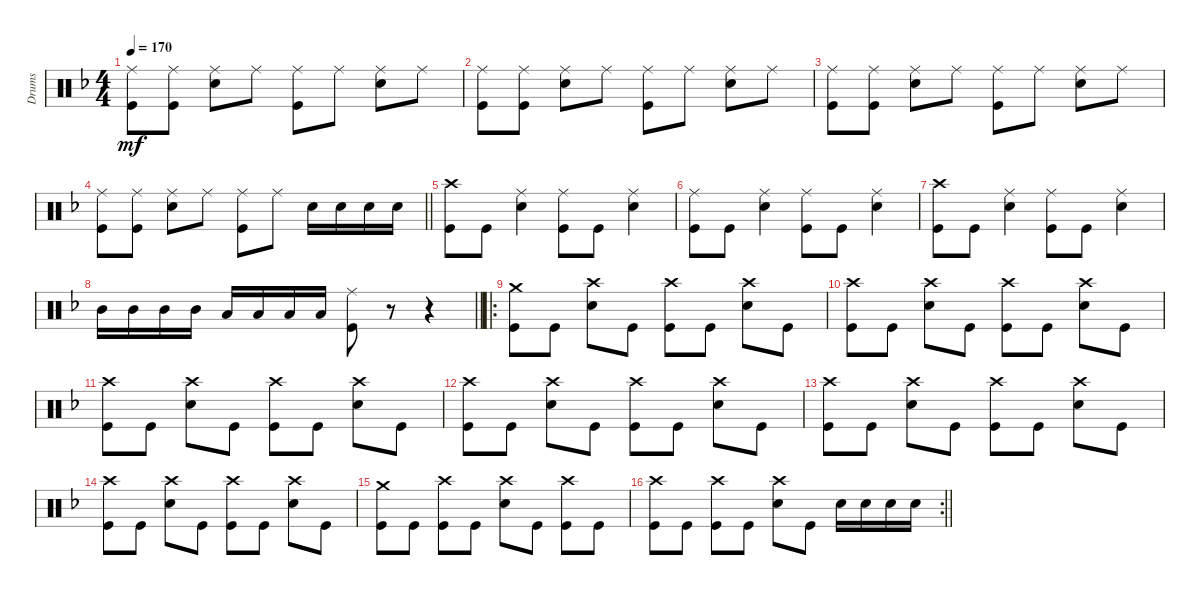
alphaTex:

\track ("Drums" "Drums") {instrument percussion}
\staff {score}
\articulation defaults
\ts (4 4)
\tempo 170
\clef neutral
\ks f
("Kick (hit)" "Ride (middle)").8{dy mf} ("Kick (hit)" "Ride (middle)").8 ("Snare (hit) 2" "Ride (middle)").8 "Ride (middle)".8 ("Kick (hit)" "Ride (middle)").8 "Ride (middle)".8 ("Snare (hit) 2" "Ride (middle)").8 "Ride (middle)".8 |
("Kick (hit)" "Ride (middle)").8 ("Kick (hit)" "Ride (middle)").8 ("Snare (hit) 2" "Ride (middle)").8 "Ride (middle)".8 ("Kick (hit)" "Ride (middle)").8 "Ride (middle)".8 ("Snare (hit) 2" "Ride (middle)").8 "Ride (middle)".8 |
("Kick (hit)" "Ride (middle)").8 ("Kick (hit)" "Ride (middle)").8 ("Snare (hit) 2" "Ride (middle)").8 "Ride (middle)".8 ("Kick (hit)" "Ride (middle)").8 "Ride (middle)".8 ("Snare (hit) 2" "Ride (middle)").8 "Ride (middle)".8 |
\barLineRight lightlight
("Kick (hit)" "Ride (middle)").8 ("Kick (hit)" "Ride (middle)").8 ("Snare (hit) 2" "Ride (middle)").8 "Ride (middle)".8 ("Kick (hit)" "Ride (middle)").8 "Ride (middle)".8 "Snare (hit) 2".16 "Snare (hit) 2".16 "Snare (hit) 2".16 "Snare (hit) 2".16 |
("Kick (hit)" "Crash high (hit)").8 "Kick (hit)".8 ("Snare (hit) 2" "Ride (middle)").4 ("Kick (hit)" "Ride (middle)").8 "Kick (hit)".8 ("Snare (hit) 2" "Ride (middle)").4 |
("Kick (hit)" "Ride (middle)").8 "Kick (hit)".8 ("Snare (hit) 2" "Ride (middle)").4 ("Kick (hit)" "Ride (middle)").8 "Kick (hit)".8 ("Snare (hit) 2" "Ride (middle)").4 |
("Kick (hit)" "Crash high (hit)").8 "Kick (hit)".8 ("Snare (hit) 2" "Ride (middle)").4 ("Kick (hit)" "Ride (middle)").8 "Kick (hit)".8 ("Snare (hit) 2" "Ride (middle)").4 |
\barLineRight lightlight "Mid Tom (hit)".16 "Mid Tom (hit)".16 "Mid Tom (hit)".16 "Mid Tom (hit)".16 "Low Tom (hit)".16 "Low Tom (hit)".16 "Low Tom (hit)".16 "Low Tom (hit)".16
("Kick (hit)" "Ride (middle)").8 r.8 r.4 |
\ro
("Kick (hit)" "Crash medium (hit)").8 "Kick (hit)".8 ("Snare (hit) 2" "Crash high (hit)").8 "Kick (hit)".8 ("Kick (hit)" "Crash high (hit)").8 "Kick (hit)".8 ("Snare (hit) 2" "Crash high (hit)").8 "Kick (hit)".8 |
("Kick (hit)" "Crash high (hit)").8 "Kick (hit)".8 ("Snare (hit) 2" "Crash high (hit)").8 "Kick (hit)".8 ("Kick (hit)" "Crash high (hit)").8 "Kick (hit)".8 ("Snare (hit) 2" "Crash high (hit)").8 "Kick (hit)".8 |
("Kick (hit)" "Crash high (hit)").8 "Kick (hit)".8 ("Snare (hit) 2" "Crash high (hit)").8 "Kick (hit)".8 ("Kick (hit)" "Crash high (hit)").8 "Kick (hit)".8 ("Snare (hit) 2" "Crash high (hit)").8 "Kick (hit)".8 |
("Kick (hit)" "Crash high (hit)").8 "Kick (hit)".8 ("Snare (hit) 2" "Crash high (hit)").8 "Kick (hit)".8 ("Kick (hit)" "Crash high (hit)").8 "Kick (hit)".8 ("Snare (hit) 2" "Crash high (hit)").8 "Kick (hit)".8 |
("Kick (hit)" "Crash high (hit)").8 "Kick (hit)".8 ("Snare (hit) 2" "Crash high (hit)").8 "Kick (hit)".8 ("Kick (hit)" "Crash high (hit)").8 "Kick (hit)".8 ("Snare (hit) 2" "Crash high (hit)").8 "Kick (hit)".8 |
("Kick (hit)" "Crash high (hit)").8 "Kick (hit)".8 ("Snare (hit) 2" "Crash high (hit)").8 "Kick (hit)".8 ("Kick (hit)" "Crash high (hit)").8 "Kick (hit)".8 ("Snare (hit) 2" "Crash high (hit)").8 "Kick (hit)".8 |
("Kick (hit)" "Crash medium (hit)").8 "Kick (hit)".8 ("Kick (hit)" "Crash high (hit)").8 "Kick (hit)".8 ("Snare (hit) 2" "Crash high (hit)").8 "Kick (hit)".8 ("Kick (hit)" "Crash high (hit)").8 "Kick (hit)".8 |
\rc 2
\barLineRight lightlight
("Kick (hit)" "Crash high (hit)").8 "Kick (hit)".8 ("Kick (hit)" "Crash high (hit)").8 "Kick (hit)".8 ("Snare (hit) 2" "Crash high (hit)").8 "Kick (hit)".8 "Snare (hit) 2".16 "Snare (hit) 2".16 "Snare (hit) 2".16 "Snare (hit) 2".16
